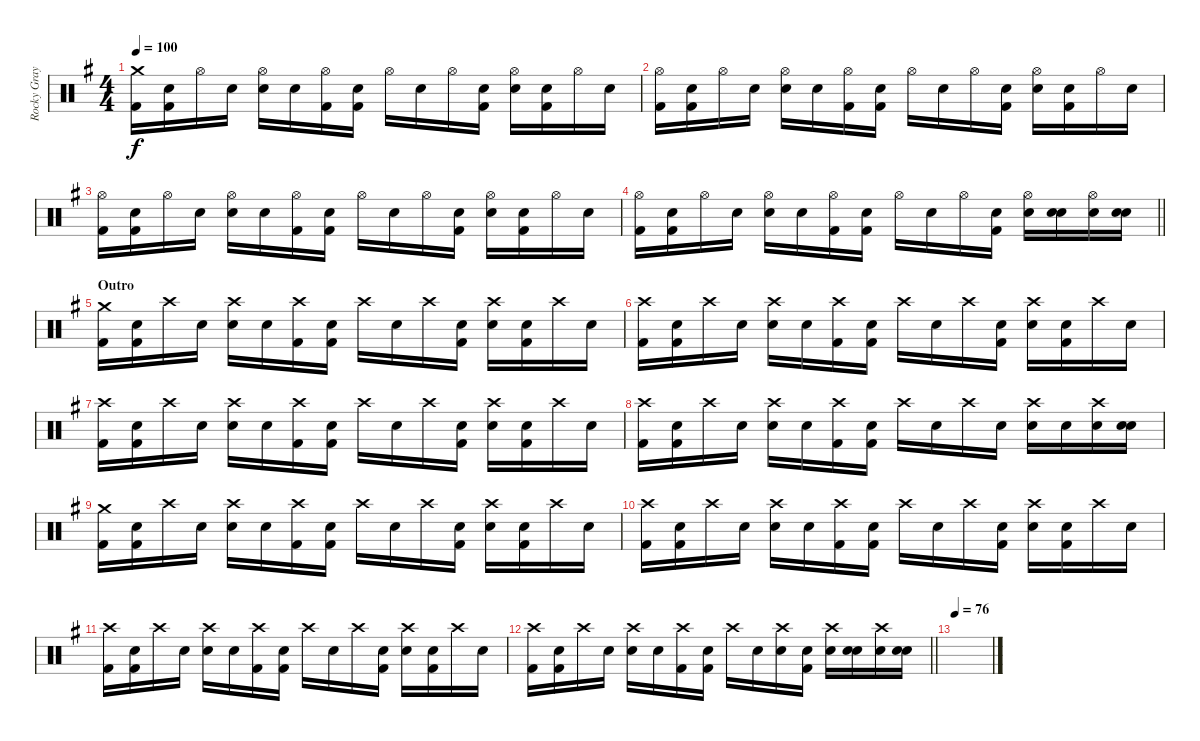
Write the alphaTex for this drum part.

\track ("Rocky Gray" "Rocky Gray") {instrument percussion}
\staff {score}
\articulation defaults
\ts (4 4)
\tempo 100
\clef neutral
\ks g
("Crash medium (hit)" "Kick (hit) 2").16{dy f} ("Snare (hit)" "Kick (hit) 2").16 "Hi-Hat (open)".16 "Snare (hit)".16 ("Hi-Hat (open)" "Snare (hit) 2").16 "Snare (hit)".16 ("Hi-Hat (open)" "Kick (hit) 2").16 ("Snare (hit)" "Kick (hit) 2").16 "Hi-Hat (open)".16 "Snare (hit)".16 "Hi-Hat (open)".16 ("Snare (hit)" "Kick (hit) 2").16 ("Hi-Hat (open)" "Snare (hit) 2").16 ("Snare (hit)" "Kick (hit) 2").16 "Hi-Hat (open)".16 "Snare (hit)".16 |
("Hi-Hat (open)" "Kick (hit) 2").16 ("Snare (hit)" "Kick (hit) 2").16 "Hi-Hat (open)".16 "Snare (hit)".16 ("Hi-Hat (open)" "Snare (hit) 2").16 "Snare (hit)".16 ("Hi-Hat (open)" "Kick (hit) 2").16 ("Snare (hit)" "Kick (hit) 2").16 "Hi-Hat (open)".16 "Snare (hit)".16 "Hi-Hat (open)".16 ("Snare (hit)" "Kick (hit) 2").16 ("Hi-Hat (open)" "Snare (hit) 2").16 ("Snare (hit)" "Kick (hit) 2").16 "Hi-Hat (open)".16 "Snare (hit)".16 |
("Hi-Hat (open)" "Kick (hit) 2").16 ("Snare (hit)" "Kick (hit) 2").16 "Hi-Hat (open)".16 "Snare (hit)".16 ("Hi-Hat (open)" "Snare (hit) 2").16 "Snare (hit)".16 ("Hi-Hat (open)" "Kick (hit) 2").16 ("Snare (hit)" "Kick (hit) 2").16 "Hi-Hat (open)".16 "Snare (hit)".16 "Hi-Hat (open)".16 ("Snare (hit)" "Kick (hit) 2").16 ("Hi-Hat (open)" "Snare (hit) 2").16 ("Snare (hit)" "Kick (hit) 2").16 "Hi-Hat (open)".16 "Snare (hit)".16 |
\barLineRight lightlight
("Hi-Hat (open)" "Kick (hit) 2").16 ("Snare (hit)" "Kick (hit) 2").16 "Hi-Hat (open)".16 "Snare (hit)".16 ("Hi-Hat (open)" "Snare (hit) 2").16 "Snare (hit)".16 ("Hi-Hat (open)" "Kick (hit) 2").16 ("Snare (hit)" "Kick (hit) 2").16 "Hi-Hat (open)".16 "Snare (hit)".16 "Hi-Hat (open)".16 ("Snare (hit)" "Kick (hit) 2").16 ("Hi-Hat (open)" "Snare (hit) 2").16 ("Snare (hit)" "Snare (hit) 2").16 ("Hi-Hat (open)" "Snare (hit) 2").16 ("Snare (hit)" "Snare (hit) 2").16 |
\section ("" "Outro")
("Crash medium (hit)" "Kick (hit) 2").16 ("Snare (hit)" "Kick (hit) 2").16 "Crash high (hit)".16 "Snare (hit)".16 ("Crash high (hit)" "Snare (hit) 2").16 "Snare (hit)".16 ("Crash high (hit)" "Kick (hit) 2").16 ("Snare (hit)" "Kick (hit) 2").16 "Crash high (hit)".16 "Snare (hit)".16 "Crash high (hit)".16 ("Snare (hit)" "Kick (hit) 2").16 ("Crash high (hit)" "Snare (hit) 2").16 ("Snare (hit)" "Kick (hit) 2").16 "Crash high (hit)".16 "Snare (hit)".16 |
("Crash high (hit)" "Kick (hit) 2").16 ("Snare (hit)" "Kick (hit) 2").16 "Crash high (hit)".16 "Snare (hit)".16 ("Crash high (hit)" "Snare (hit) 2").16 "Snare (hit)".16 ("Crash high (hit)" "Kick (hit) 2").16 ("Snare (hit)" "Kick (hit) 2").16 "Crash high (hit)".16 "Snare (hit)".16 "Crash high (hit)".16 ("Snare (hit)" "Kick (hit) 2").16 ("Crash high (hit)" "Snare (hit) 2").16 ("Snare (hit)" "Kick (hit) 2").16 "Crash high (hit)".16 "Snare (hit)".16 |
("Crash high (hit)" "Kick (hit) 2").16 ("Snare (hit)" "Kick (hit) 2").16 "Crash high (hit)".16 "Snare (hit)".16 ("Crash high (hit)" "Snare (hit) 2").16 "Snare (hit)".16 ("Crash high (hit)" "Kick (hit) 2").16 ("Snare (hit)" "Kick (hit) 2").16 "Crash high (hit)".16 "Snare (hit)".16 "Crash high (hit)".16 ("Snare (hit)" "Kick (hit) 2").16 ("Crash high (hit)" "Snare (hit) 2").16 ("Snare (hit)" "Kick (hit) 2").16 "Crash high (hit)".16 "Snare (hit)".16 |
("Crash high (hit)" "Kick (hit) 2").16 ("Snare (hit)" "Kick (hit) 2").16 "Crash high (hit)".16 "Snare (hit)".16 ("Crash high (hit)" "Snare (hit) 2").16 "Snare (hit)".16 ("Crash high (hit)" "Kick (hit) 2").16 ("Snare (hit)" "Kick (hit) 2").16 "Crash high (hit)".16 "Snare (hit)".16 "Crash high (hit)".16 "Snare (hit)".16 ("Crash high (hit)" "Snare (hit) 2").16 "Snare (hit)".16 ("Crash high (hit)" "Snare (hit) 2").16 ("Snare (hit)" "Snare (hit) 2").16 |
("Crash medium (hit)" "Kick (hit) 2").16 ("Snare (hit)" "Kick (hit) 2").16 "Crash high (hit)".16 "Snare (hit)".16 ("Crash high (hit)" "Snare (hit) 2").16 "Snare (hit)".16 ("Crash high (hit)" "Kick (hit) 2").16 ("Snare (hit)" "Kick (hit) 2").16 "Crash high (hit)".16 "Snare (hit)".16 "Crash high (hit)".16 ("Snare (hit)" "Kick (hit) 2").16 ("Crash high (hit)" "Snare (hit) 2").16 ("Snare (hit)" "Kick (hit) 2").16 "Crash high (hit)".16 "Snare (hit)".16 |
("Crash high (hit)" "Kick (hit) 2").16 ("Snare (hit)" "Kick (hit) 2").16 "Crash high (hit)".16 "Snare (hit)".16 ("Crash high (hit)" "Snare (hit) 2").16 "Snare (hit)".16 ("Crash high (hit)" "Kick (hit) 2").16 ("Snare (hit)" "Kick (hit) 2").16 "Crash high (hit)".16 "Snare (hit)".16 "Crash high (hit)".16 ("Snare (hit)" "Kick (hit) 2").16 ("Crash high (hit)" "Snare (hit) 2").16 ("Snare (hit)" "Kick (hit) 2").16 "Crash high (hit)".16 "Snare (hit)".16 |
("Crash high (hit)" "Kick (hit) 2").16 ("Snare (hit)" "Kick (hit) 2").16 "Crash high (hit)".16 "Snare (hit)".16 ("Crash high (hit)" "Snare (hit) 2").16 "Snare (hit)".16 ("Crash high (hit)" "Kick (hit) 2").16 ("Snare (hit)" "Kick (hit) 2").16 "Crash high (hit)".16 "Snare (hit)".16 "Crash high (hit)".16 ("Snare (hit)" "Kick (hit) 2").16 ("Crash high (hit)" "Snare (hit) 2").16 ("Snare (hit)" "Kick (hit) 2").16 "Crash high (hit)".16 "Snare (hit)".16 |
\barLineRight lightlight
("Crash high (hit)" "Kick (hit) 2").16 ("Snare (hit)" "Kick (hit) 2").16 "Crash high (hit)".16 "Snare (hit)".16 ("Crash high (hit)" "Snare (hit) 2").16 "Snare (hit)".16 ("Crash high (hit)" "Kick (hit) 2").16 ("Snare (hit)" "Kick (hit) 2").16 "Crash high (hit)".16 "Snare (hit)".16 ("Crash high (hit)" "Snare (hit) 2").16 ("Snare (hit)" "Kick (hit) 2").16 ("Crash high (hit)" "Snare (hit) 2").16 ("Snare (hit)" "Snare (hit) 2").16 ("Crash high (hit)" "Snare (hit) 2").16 ("Snare (hit)" "Snare (hit) 2").16 |
\tempo 76
